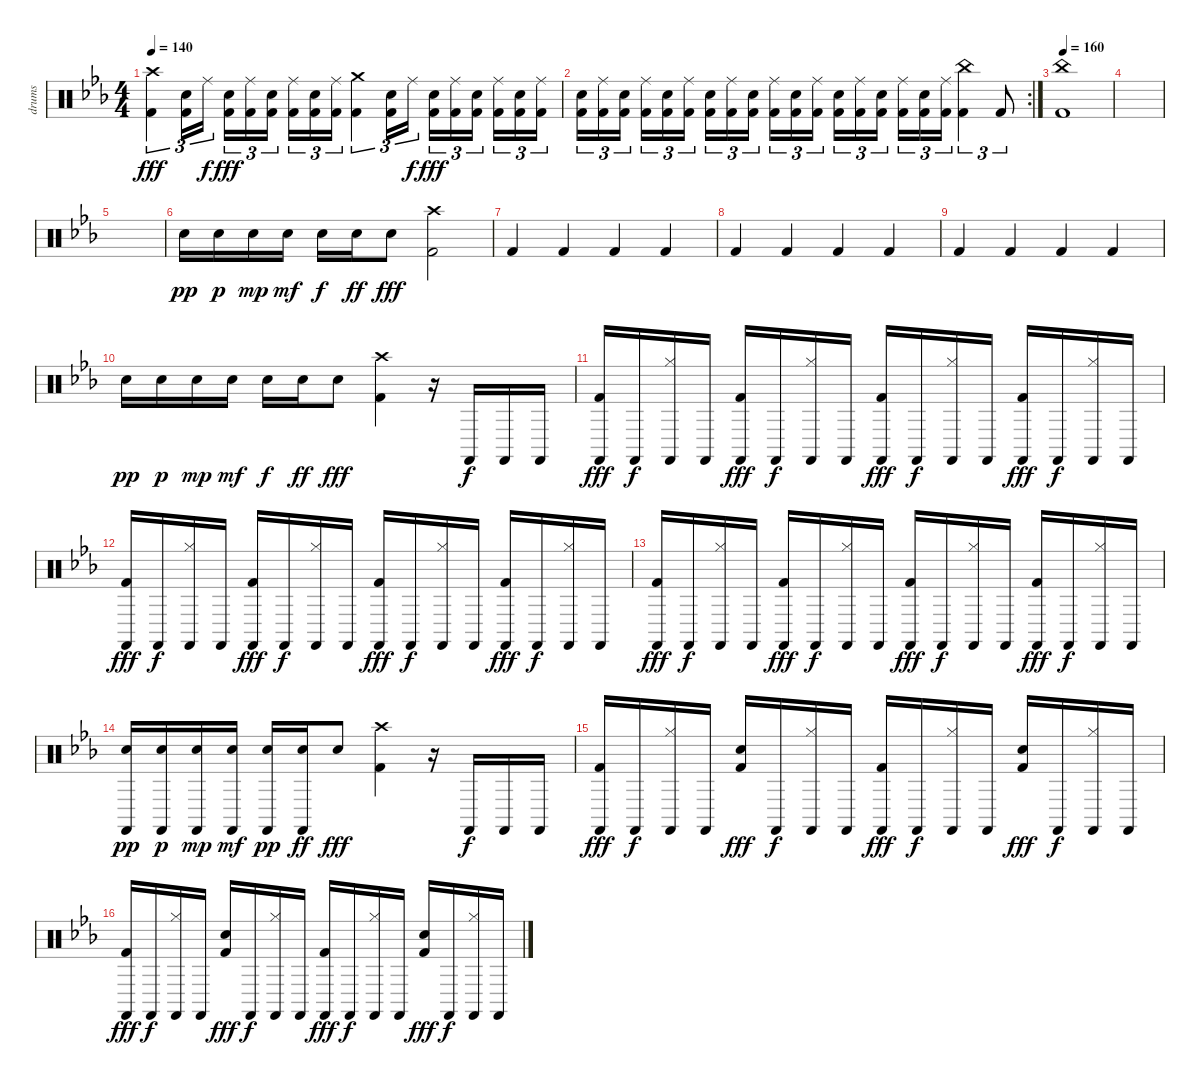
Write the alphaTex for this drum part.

\track ("drums" "drums") {instrument percussion}
\staff {score}
\articulation defaults
\ts (4 4)
\tempo 140
\clef neutral
\ks cminor
("Crash high (hit)" "Kick (hit) 2").4{tu (3 2) dy fff} ("Electric Snare (hit)" "Kick (hit) 2").16{tu (3 2)} "Ride (middle)".16{tu (3 2) dy f} ("Electric Snare (hit)" "Kick (hit) 2").16{tu (3 2) dy fff} ("Ride (middle)" "Kick (hit) 2").16{tu (3 2)} ("Electric Snare (hit)" "Kick (hit) 2").16{tu (3 2) beam splitsecondary} ("Ride (middle)" "Kick (hit) 2").16{tu (3 2)} ("Electric Snare (hit)" "Kick (hit) 2").16{tu (3 2)} ("Ride (middle)" "Kick (hit) 2").16{tu (3 2)} ("Crash medium (hit)" "Kick (hit) 2").4{tu (3 2)} ("Electric Snare (hit)" "Kick (hit) 2").16{tu (3 2)} "Ride (middle)".16{tu (3 2) dy f} ("Electric Snare (hit)" "Kick (hit) 2").16{tu (3 2) dy fff} ("Ride (middle)" "Kick (hit) 2").16{tu (3 2)} ("Electric Snare (hit)" "Kick (hit) 2").16{tu (3 2) beam splitsecondary} ("Ride (middle)" "Kick (hit) 2").16{tu (3 2)} ("Electric Snare (hit)" "Kick (hit) 2").16{tu (3 2)} ("Ride (middle)" "Kick (hit) 2").16{tu (3 2)} |
\rc 2
("Electric Snare (hit)" "Kick (hit) 2").16{tu (3 2)} ("Ride (middle)" "Kick (hit) 2").16{tu (3 2)} ("Electric Snare (hit)" "Kick (hit) 2").16{tu (3 2) beam splitsecondary} ("Ride (middle)" "Kick (hit) 2").16{tu (3 2)} ("Electric Snare (hit)" "Kick (hit) 2").16{tu (3 2)} ("Ride (middle)" "Kick (hit) 2").16{tu (3 2)} ("Electric Snare (hit)" "Kick (hit) 2").16{tu (3 2)} ("Ride (middle)" "Kick (hit) 2").16{tu (3 2)} ("Electric Snare (hit)" "Kick (hit) 2").16{tu (3 2) beam splitsecondary} ("Ride (middle)" "Kick (hit) 2").16{tu (3 2)} ("Electric Snare (hit)" "Kick (hit) 2").16{tu (3 2)} ("Ride (middle)" "Kick (hit) 2").16{tu (3 2)} ("Electric Snare (hit)" "Kick (hit) 2").16{tu (3 2)} ("Ride (middle)" "Kick (hit) 2").16{tu (3 2)} ("Electric Snare (hit)" "Kick (hit) 2").16{tu (3 2) beam splitsecondary} ("Ride (middle)" "Kick (hit) 2").16{tu (3 2)} ("Electric Snare (hit)" "Kick (hit) 2").16{tu (3 2)} ("Ride (middle)" "Kick (hit) 2").16{tu (3 2)} ("China (hit)" "Kick (hit) 2").4{tu (3 2)} "Kick (hit) 2".8{tu (3 2)} |
\tempo 160
("China (hit)" "Kick (hit) 2").1 |
|
|
"Electric Snare (hit)".16{dy pp} "Electric Snare (hit)".16{dy p} "Electric Snare (hit)".16{dy mp} "Electric Snare (hit)".16{dy mf} "Electric Snare (hit)".16{dy f} "Electric Snare (hit)".16{dy ff} "Electric Snare (hit)".8{dy fff} ("Crash high (hit)" "Kick (hit) 2").2 |
"Kick (hit) 2".4 "Kick (hit) 2".4 "Kick (hit) 2".4 "Kick (hit) 2".4 |
"Kick (hit) 2".4 "Kick (hit) 2".4 "Kick (hit) 2".4 "Kick (hit) 2".4 |
"Kick (hit) 2".4 "Kick (hit) 2".4 "Kick (hit) 2".4 "Kick (hit) 2".4 |
"Electric Snare (hit)".16{dy pp} "Electric Snare (hit)".16{dy p} "Electric Snare (hit)".16{dy mp} "Electric Snare (hit)".16{dy mf} "Electric Snare (hit)".16{dy f} "Electric Snare (hit)".16{dy ff} "Electric Snare (hit)".8{dy fff} ("Crash high (hit)" "Kick (hit) 2").4 r.16 "Castanets (hit)".16{dy f} "Castanets (hit)".16 "Castanets (hit)".16 |
("Castanets (hit)" "Kick (hit) 2").16{dy fff} "Castanets (hit)".16{dy f} ("Hi-Hat (closed)" "Castanets (hit)").16 "Castanets (hit)".16 ("Castanets (hit)" "Kick (hit) 2").16{dy fff} "Castanets (hit)".16{dy f} ("Hi-Hat (closed)" "Castanets (hit)").16 "Castanets (hit)".16 ("Castanets (hit)" "Kick (hit) 2").16{dy fff} "Castanets (hit)".16{dy f} ("Hi-Hat (closed)" "Castanets (hit)").16 "Castanets (hit)".16 ("Castanets (hit)" "Kick (hit) 2").16{dy fff} "Castanets (hit)".16{dy f} ("Hi-Hat (closed)" "Castanets (hit)").16 "Castanets (hit)".16 |
("Castanets (hit)" "Kick (hit) 2").16{dy fff} "Castanets (hit)".16{dy f} ("Hi-Hat (closed)" "Castanets (hit)").16 "Castanets (hit)".16 ("Castanets (hit)" "Kick (hit) 2").16{dy fff} "Castanets (hit)".16{dy f} ("Hi-Hat (closed)" "Castanets (hit)").16 "Castanets (hit)".16 ("Castanets (hit)" "Kick (hit) 2").16{dy fff} "Castanets (hit)".16{dy f} ("Hi-Hat (closed)" "Castanets (hit)").16 "Castanets (hit)".16 ("Castanets (hit)" "Kick (hit) 2").16{dy fff} "Castanets (hit)".16{dy f} ("Hi-Hat (closed)" "Castanets (hit)").16 "Castanets (hit)".16 |
("Castanets (hit)" "Kick (hit) 2").16{dy fff} "Castanets (hit)".16{dy f} ("Hi-Hat (closed)" "Castanets (hit)").16 "Castanets (hit)".16 ("Castanets (hit)" "Kick (hit) 2").16{dy fff} "Castanets (hit)".16{dy f} ("Hi-Hat (closed)" "Castanets (hit)").16 "Castanets (hit)".16 ("Castanets (hit)" "Kick (hit) 2").16{dy fff} "Castanets (hit)".16{dy f} ("Hi-Hat (closed)" "Castanets (hit)").16 "Castanets (hit)".16 ("Castanets (hit)" "Kick (hit) 2").16{dy fff} "Castanets (hit)".16{dy f} ("Hi-Hat (closed)" "Castanets (hit)").16 "Castanets (hit)".16 |
("Castanets (hit)" "Electric Snare (hit)").16{dy pp} ("Castanets (hit)" "Electric Snare (hit)").16{dy p} ("Castanets (hit)" "Electric Snare (hit)").16{dy mp} ("Castanets (hit)" "Electric Snare (hit)").16{dy mf} ("Castanets (hit)" "Electric Snare (hit)").16{dy pp} ("Castanets (hit)" "Electric Snare (hit)").16{dy ff} "Electric Snare (hit)".8{dy fff} ("Crash high (hit)" "Kick (hit) 2").4 r.16 "Castanets (hit)".16{dy f} "Castanets (hit)".16 "Castanets (hit)".16 |
("Castanets (hit)" "Kick (hit) 2").16{dy fff} "Castanets (hit)".16{dy f} ("Hi-Hat (closed)" "Castanets (hit)").16 "Castanets (hit)".16 ("Electric Snare (hit)" "Kick (hit) 2").16{dy fff} "Castanets (hit)".16{dy f} ("Hi-Hat (closed)" "Castanets (hit)").16 "Castanets (hit)".16 ("Castanets (hit)" "Kick (hit) 2").16{dy fff} "Castanets (hit)".16{dy f} ("Hi-Hat (closed)" "Castanets (hit)").16 "Castanets (hit)".16 ("Electric Snare (hit)" "Kick (hit) 2").16{dy fff} "Castanets (hit)".16{dy f} ("Hi-Hat (closed)" "Castanets (hit)").16 "Castanets (hit)".16 |
("Castanets (hit)" "Kick (hit) 2").16{dy fff} "Castanets (hit)".16{dy f} ("Hi-Hat (closed)" "Castanets (hit)").16 "Castanets (hit)".16 ("Electric Snare (hit)" "Kick (hit) 2").16{dy fff} "Castanets (hit)".16{dy f} ("Hi-Hat (closed)" "Castanets (hit)").16 "Castanets (hit)".16 ("Castanets (hit)" "Kick (hit) 2").16{dy fff} "Castanets (hit)".16{dy f} ("Hi-Hat (closed)" "Castanets (hit)").16 "Castanets (hit)".16 ("Electric Snare (hit)" "Kick (hit) 2").16{dy fff} "Castanets (hit)".16{dy f} ("Hi-Hat (closed)" "Castanets (hit)").16 "Castanets (hit)".16
